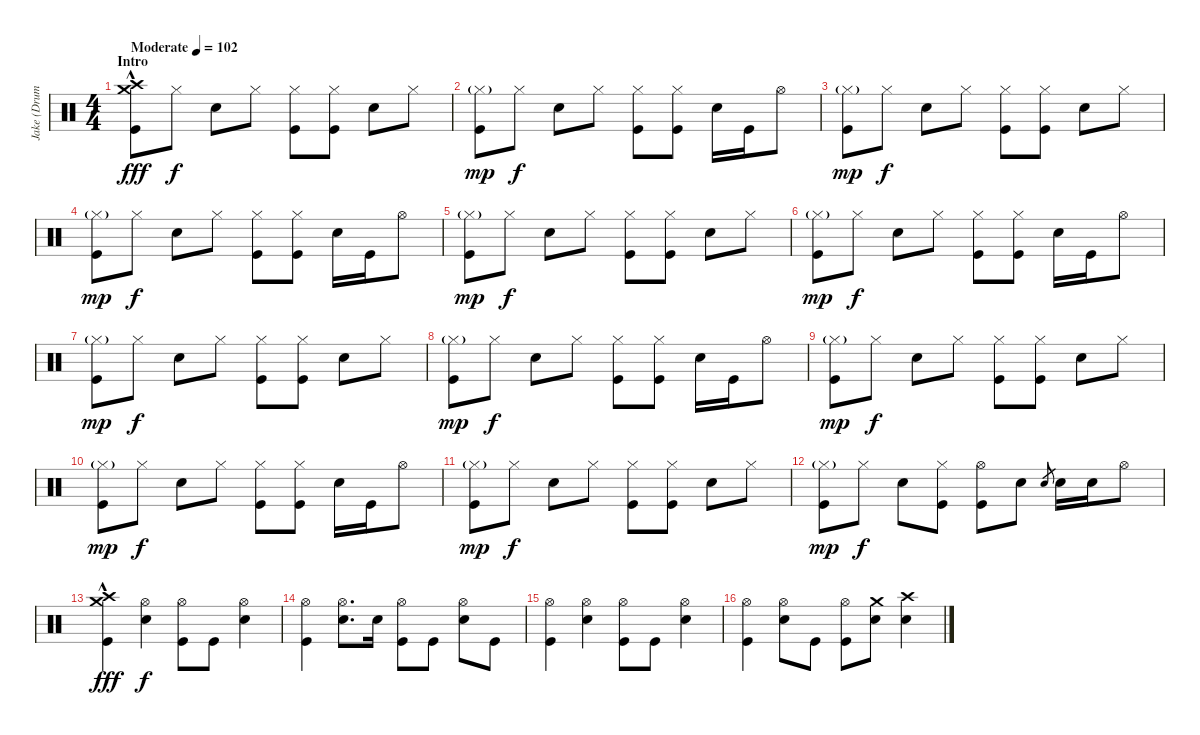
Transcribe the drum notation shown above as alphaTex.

\track ("Jake (Drums)" "Jake (Drum") {instrument percussion}
\staff {score}
\articulation defaults
\ts (4 4)
\section ("" "Intro")
\tempo (102 "Moderate")
\clef neutral
\ks c
("Crash high (hit)"{hac} "Crash medium (hit)" "Kick (hit)").8{dy fff} "Hi-Hat (closed)".8{dy f} "Snare (hit) 2".8 "Hi-Hat (closed)".8 ("Hi-Hat (closed)" "Kick (hit)").8 ("Hi-Hat (closed)" "Kick (hit)").8 "Snare (hit) 2".8 "Hi-Hat (closed)".8 |
("Hi-Hat (closed)"{g} "Kick (hit)").8{dy mp} "Hi-Hat (closed)".8{dy f} "Snare (hit) 2".8 "Hi-Hat (closed)".8 ("Hi-Hat (closed)" "Kick (hit)").8 ("Hi-Hat (closed)" "Kick (hit)").8 "Snare (hit) 2".16 "Kick (hit)".16 "Hi-Hat (open)".8 |
("Hi-Hat (closed)"{g} "Kick (hit)").8{dy mp} "Hi-Hat (closed)".8{dy f} "Snare (hit) 2".8 "Hi-Hat (closed)".8 ("Hi-Hat (closed)" "Kick (hit)").8 ("Hi-Hat (closed)" "Kick (hit)").8 "Snare (hit) 2".8 "Hi-Hat (closed)".8 |
("Hi-Hat (closed)"{g} "Kick (hit)").8{dy mp} "Hi-Hat (closed)".8{dy f} "Snare (hit) 2".8 "Hi-Hat (closed)".8 ("Hi-Hat (closed)" "Kick (hit)").8 ("Hi-Hat (closed)" "Kick (hit)").8 "Snare (hit) 2".16 "Kick (hit)".16 "Hi-Hat (open)".8 |
("Hi-Hat (closed)"{g} "Kick (hit)").8{dy mp} "Hi-Hat (closed)".8{dy f} "Snare (hit) 2".8 "Hi-Hat (closed)".8 ("Hi-Hat (closed)" "Kick (hit)").8 ("Hi-Hat (closed)" "Kick (hit)").8 "Snare (hit) 2".8 "Hi-Hat (closed)".8 |
("Hi-Hat (closed)"{g} "Kick (hit)").8{dy mp} "Hi-Hat (closed)".8{dy f} "Snare (hit) 2".8 "Hi-Hat (closed)".8 ("Hi-Hat (closed)" "Kick (hit)").8 ("Hi-Hat (closed)" "Kick (hit)").8 "Snare (hit) 2".16 "Kick (hit)".16 "Hi-Hat (open)".8 |
("Hi-Hat (closed)"{g} "Kick (hit)").8{dy mp} "Hi-Hat (closed)".8{dy f} "Snare (hit) 2".8 "Hi-Hat (closed)".8 ("Hi-Hat (closed)" "Kick (hit)").8 ("Hi-Hat (closed)" "Kick (hit)").8 "Snare (hit) 2".8 "Hi-Hat (closed)".8 |
("Hi-Hat (closed)"{g} "Kick (hit)").8{dy mp} "Hi-Hat (closed)".8{dy f} "Snare (hit) 2".8 "Hi-Hat (closed)".8 ("Hi-Hat (closed)" "Kick (hit)").8 ("Hi-Hat (closed)" "Kick (hit)").8 "Snare (hit) 2".16 "Kick (hit)".16 "Hi-Hat (open)".8 |
("Hi-Hat (closed)"{g} "Kick (hit)").8{dy mp} "Hi-Hat (closed)".8{dy f} "Snare (hit) 2".8 "Hi-Hat (closed)".8 ("Hi-Hat (closed)" "Kick (hit)").8 ("Hi-Hat (closed)" "Kick (hit)").8 "Snare (hit) 2".8 "Hi-Hat (closed)".8 |
("Hi-Hat (closed)"{g} "Kick (hit)").8{dy mp} "Hi-Hat (closed)".8{dy f} "Snare (hit) 2".8 "Hi-Hat (closed)".8 ("Hi-Hat (closed)" "Kick (hit)").8 ("Hi-Hat (closed)" "Kick (hit)").8 "Snare (hit) 2".16 "Kick (hit)".16 "Hi-Hat (open)".8 |
("Hi-Hat (closed)"{g} "Kick (hit)").8{dy mp} "Hi-Hat (closed)".8{dy f} "Snare (hit) 2".8 "Hi-Hat (closed)".8 ("Hi-Hat (closed)" "Kick (hit)").8 ("Hi-Hat (closed)" "Kick (hit)").8 "Snare (hit) 2".8 "Hi-Hat (closed)".8 |
("Hi-Hat (closed)"{g} "Kick (hit)").8{dy mp} "Hi-Hat (closed)".8{dy f} "Snare (hit) 2".8 ("Hi-Hat (closed)" "Kick (hit)").8 ("Hi-Hat (open)" "Kick (hit)").8 "Snare (hit) 2".8 "Snare (hit) 2".8{gr} "Snare (hit) 2".16 "Snare (hit) 2".16 "Hi-Hat (open)".8 |
("Crash high (hit)"{hac} "Crash medium (hit)" "Kick (hit)").4{dy fff} ("Hi-Hat (open)" "Snare (hit) 2").4{dy f} ("Hi-Hat (open)" "Kick (hit)").8 "Kick (hit)".8 ("Hi-Hat (open)" "Snare (hit) 2").4 |
("Hi-Hat (open)" "Kick (hit)").4 ("Hi-Hat (open)" "Snare (hit) 2").8{d} "Snare (hit) 2".16 ("Hi-Hat (open)" "Kick (hit)").8 "Kick (hit)".8 ("Hi-Hat (open)" "Snare (hit) 2").8 "Kick (hit)".8 |
("Hi-Hat (open)" "Kick (hit)").4 ("Hi-Hat (open)" "Snare (hit) 2").4 ("Hi-Hat (open)" "Kick (hit)").8 "Kick (hit)".8 ("Hi-Hat (open)" "Snare (hit) 2").4 |
("Hi-Hat (open)" "Kick (hit)").4 ("Hi-Hat (open)" "Snare (hit) 2").8 "Kick (hit)".8 ("Hi-Hat (open)" "Kick (hit)").8 ("Crash medium (hit)" "Snare (hit) 2").8 ("Crash high (hit)" "Snare (hit) 2").4
